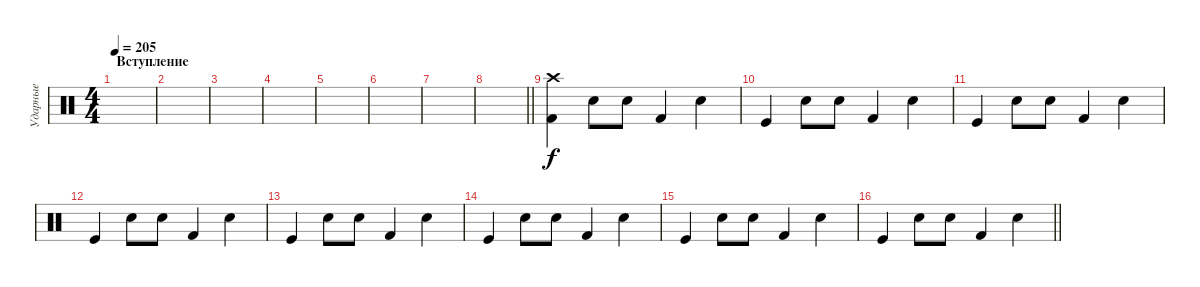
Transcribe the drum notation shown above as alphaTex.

\track ("Ударные" "Ударные") {instrument percussion}
\staff {score}
\articulation defaults
\ts (4 4)
\section ("" "Вступление")
\tempo 205
\clef neutral
\ks c
|
|
|
|
|
|
|
\barLineRight lightlight
|
("Kick (hit) 2" "Crash high (hit)").4 "Snare (hit) 2".8 "Snare (hit) 2".8 "Kick (hit) 2".4 "Snare (hit) 2".4 |
"Kick (hit)".4 "Snare (hit) 2".8 "Snare (hit) 2".8 "Kick (hit) 2".4 "Snare (hit) 2".4 |
"Kick (hit)".4 "Snare (hit) 2".8 "Snare (hit) 2".8 "Kick (hit) 2".4 "Snare (hit) 2".4 |
"Kick (hit)".4 "Snare (hit) 2".8 "Snare (hit) 2".8 "Kick (hit) 2".4 "Snare (hit) 2".4 |
"Kick (hit)".4 "Snare (hit) 2".8 "Snare (hit) 2".8 "Kick (hit) 2".4 "Snare (hit) 2".4 |
"Kick (hit)".4 "Snare (hit) 2".8 "Snare (hit) 2".8 "Kick (hit) 2".4 "Snare (hit) 2".4 |
"Kick (hit)".4 "Snare (hit) 2".8 "Snare (hit) 2".8 "Kick (hit) 2".4 "Snare (hit) 2".4 |
\barLineRight lightlight "Kick (hit)".4 "Snare (hit) 2".8 "Snare (hit) 2".8 "Kick (hit) 2".4 "Snare (hit) 2".4
